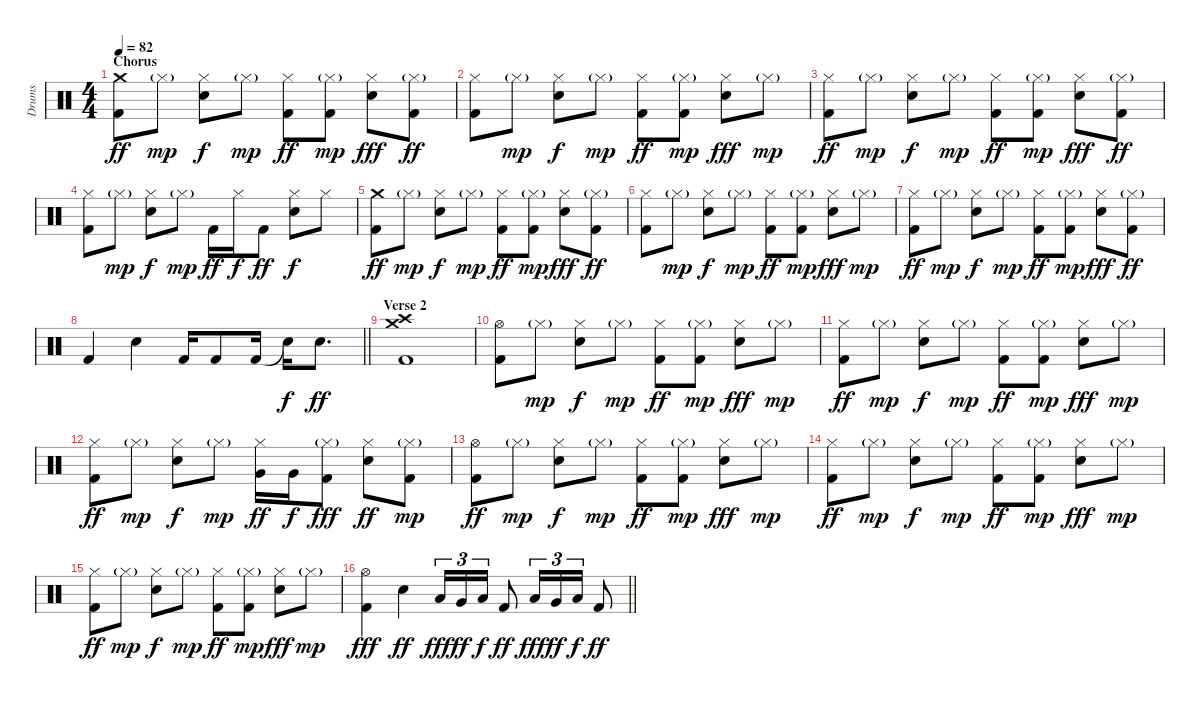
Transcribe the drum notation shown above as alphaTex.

\track ("Drums" "Drums") {instrument percussion}
\staff {score}
\articulation defaults
\ts (4 4)
\section ("" "Chorus")
\tempo 82
\clef neutral
\ks c
("Crash medium (hit)" "Kick (hit) 2").8{dy ff} "Hi-Hat (closed)"{g}.8{dy mp} ("Hi-Hat (closed)" "Electric Snare (hit)").8{dy f} "Hi-Hat (closed)"{g}.8{dy mp} ("Hi-Hat (closed)" "Kick (hit) 2").8{dy ff} ("Hi-Hat (closed)"{g} "Kick (hit) 2").8{dy mp} ("Hi-Hat (closed)" "Electric Snare (hit)").8{dy fff} ("Hi-Hat (closed)"{g} "Kick (hit) 2").8{dy ff} |
("Hi-Hat (closed)" "Kick (hit) 2").8 "Hi-Hat (closed)"{g}.8{dy mp} ("Hi-Hat (closed)" "Electric Snare (hit)").8{dy f} "Hi-Hat (closed)"{g}.8{dy mp} ("Hi-Hat (closed)" "Kick (hit) 2").8{dy ff} ("Hi-Hat (closed)"{g} "Kick (hit) 2").8{dy mp} ("Hi-Hat (closed)" "Electric Snare (hit)").8{dy fff} "Hi-Hat (closed)"{g}.8{dy mp} |
("Hi-Hat (closed)" "Kick (hit) 2").8{dy ff} "Hi-Hat (closed)"{g}.8{dy mp} ("Hi-Hat (closed)" "Electric Snare (hit)").8{dy f} "Hi-Hat (closed)"{g}.8{dy mp} ("Hi-Hat (closed)" "Kick (hit) 2").8{dy ff} ("Hi-Hat (closed)"{g} "Kick (hit) 2").8{dy mp} ("Hi-Hat (closed)" "Electric Snare (hit)").8{dy fff} ("Hi-Hat (closed)"{g} "Kick (hit) 2").8{dy ff} |
("Hi-Hat (closed)" "Kick (hit) 2").8 "Hi-Hat (closed)"{g}.8{dy mp} ("Hi-Hat (closed)" "Electric Snare (hit)").8{dy f} "Hi-Hat (closed)"{g}.8{dy mp} "Kick (hit) 2".16{dy ff} "Hi-Hat (closed)".16{dy f} "Kick (hit) 2".8{dy ff} ("Hi-Hat (closed)" "Electric Snare (hit)").8{dy f} "Hi-Hat (closed)".8 |
("Crash medium (hit)" "Kick (hit) 2").8{dy ff} "Hi-Hat (closed)"{g}.8{dy mp} ("Hi-Hat (closed)" "Electric Snare (hit)").8{dy f} "Hi-Hat (closed)"{g}.8{dy mp} ("Hi-Hat (closed)" "Kick (hit) 2").8{dy ff} ("Hi-Hat (closed)"{g} "Kick (hit) 2").8{dy mp} ("Hi-Hat (closed)" "Electric Snare (hit)").8{dy fff} ("Hi-Hat (closed)"{g} "Kick (hit) 2").8{dy ff} |
("Hi-Hat (closed)" "Kick (hit) 2").8 "Hi-Hat (closed)"{g}.8{dy mp} ("Hi-Hat (closed)" "Electric Snare (hit)").8{dy f} "Hi-Hat (closed)"{g}.8{dy mp} ("Hi-Hat (closed)" "Kick (hit) 2").8{dy ff} ("Hi-Hat (closed)"{g} "Kick (hit) 2").8{dy mp} ("Hi-Hat (closed)" "Electric Snare (hit)").8{dy fff} "Hi-Hat (closed)"{g}.8{dy mp} |
("Hi-Hat (closed)" "Kick (hit) 2").8{dy ff} "Hi-Hat (closed)"{g}.8{dy mp} ("Hi-Hat (closed)" "Electric Snare (hit)").8{dy f} "Hi-Hat (closed)"{g}.8{dy mp} ("Hi-Hat (closed)" "Kick (hit) 2").8{dy ff} ("Hi-Hat (closed)"{g} "Kick (hit) 2").8{dy mp} ("Hi-Hat (closed)" "Electric Snare (hit)").8{dy fff} ("Hi-Hat (closed)"{g} "Kick (hit) 2").8{dy ff} |
\barLineRight lightlight "Kick (hit) 2".4 "Electric Snare (hit)".4 "Kick (hit) 2".16 "Kick (hit) 2".8 "Kick (hit) 2".16 "Snare (hit)"{t}.16{dy f} "Electric Snare (hit)".8{d dy ff}
|
\section ("" "Verse 2")
("Crash medium (hit)" "Crash high (hit)" "Kick (hit) 2").1 |
("Hi-Hat (open)" "Kick (hit) 2").8 "Hi-Hat (closed)"{g}.8{dy mp} ("Hi-Hat (closed)" "Electric Snare (hit)").8{dy f} "Hi-Hat (closed)"{g}.8{dy mp} ("Hi-Hat (closed)" "Kick (hit) 2").8{dy ff} ("Hi-Hat (closed)"{g} "Kick (hit) 2").8{dy mp} ("Hi-Hat (closed)" "Electric Snare (hit)").8{dy fff} "Hi-Hat (closed)"{g}.8{dy mp} |
("Hi-Hat (closed)" "Kick (hit) 2").8{dy ff} "Hi-Hat (closed)"{g}.8{dy mp} ("Hi-Hat (closed)" "Electric Snare (hit)").8{dy f} "Hi-Hat (closed)"{g}.8{dy mp} ("Hi-Hat (closed)" "Kick (hit) 2").8{dy ff} ("Hi-Hat (closed)"{g} "Kick (hit) 2").8{dy mp} ("Hi-Hat (closed)" "Electric Snare (hit)").8{dy fff} "Hi-Hat (closed)"{g}.8{dy mp} |
("Hi-Hat (closed)" "Kick (hit) 2").8{dy ff} "Hi-Hat (closed)"{g}.8{dy mp} ("Hi-Hat (closed)" "Electric Snare (hit)").8{dy f} "Hi-Hat (closed)"{g}.8{dy mp} ("Hi-Hat (closed)" "Very Low Tom (hit)").16{dy ff} "Very Low Tom (hit)".16{dy f} ("Hi-Hat (closed)"{g} "Kick (hit) 2").8{dy fff} ("Hi-Hat (closed)" "Electric Snare (hit)").8{dy ff} ("Hi-Hat (closed)"{g} "Kick (hit) 2").8{dy mp} |
("Hi-Hat (open)" "Kick (hit) 2").8{dy ff} "Hi-Hat (closed)"{g}.8{dy mp} ("Hi-Hat (closed)" "Electric Snare (hit)").8{dy f} "Hi-Hat (closed)"{g}.8{dy mp} ("Hi-Hat (closed)" "Kick (hit) 2").8{dy ff} ("Hi-Hat (closed)"{g} "Kick (hit) 2").8{dy mp} ("Hi-Hat (closed)" "Electric Snare (hit)").8{dy fff} "Hi-Hat (closed)"{g}.8{dy mp} |
("Hi-Hat (closed)" "Kick (hit) 2").8{dy ff} "Hi-Hat (closed)"{g}.8{dy mp} ("Hi-Hat (closed)" "Electric Snare (hit)").8{dy f} "Hi-Hat (closed)"{g}.8{dy mp} ("Hi-Hat (closed)" "Kick (hit) 2").8{dy ff} ("Hi-Hat (closed)"{g} "Kick (hit) 2").8{dy mp} ("Hi-Hat (closed)" "Electric Snare (hit)").8{dy fff} "Hi-Hat (closed)"{g}.8{dy mp} |
("Hi-Hat (closed)" "Kick (hit) 2").8{dy ff} "Hi-Hat (closed)"{g}.8{dy mp} ("Hi-Hat (closed)" "Electric Snare (hit)").8{dy f} "Hi-Hat (closed)"{g}.8{dy mp} ("Hi-Hat (closed)" "Kick (hit) 2").8{dy ff} ("Hi-Hat (closed)"{g} "Kick (hit) 2").8{dy mp} ("Hi-Hat (closed)" "Electric Snare (hit)").8{dy fff} "Hi-Hat (closed)"{g}.8{dy mp} |
\barLineRight lightlight
("Hi-Hat (open)" "Kick (hit) 2").4{dy fff} "Electric Snare (hit)".4{dy ff} "Low Tom (hit)".16{tu (3 2) dy fff} "Very Low Tom (hit)".16{tu (3 2) dy ff} "Low Floor Tom (hit)".16{tu (3 2) dy f} "Kick (hit) 2".8{dy ff} "Low Tom (hit)".16{tu (3 2) dy fff} "Very Low Tom (hit)".16{tu (3 2) dy ff} "Low Floor Tom (hit)".16{tu (3 2) dy f} "Kick (hit) 2".8{dy ff}
